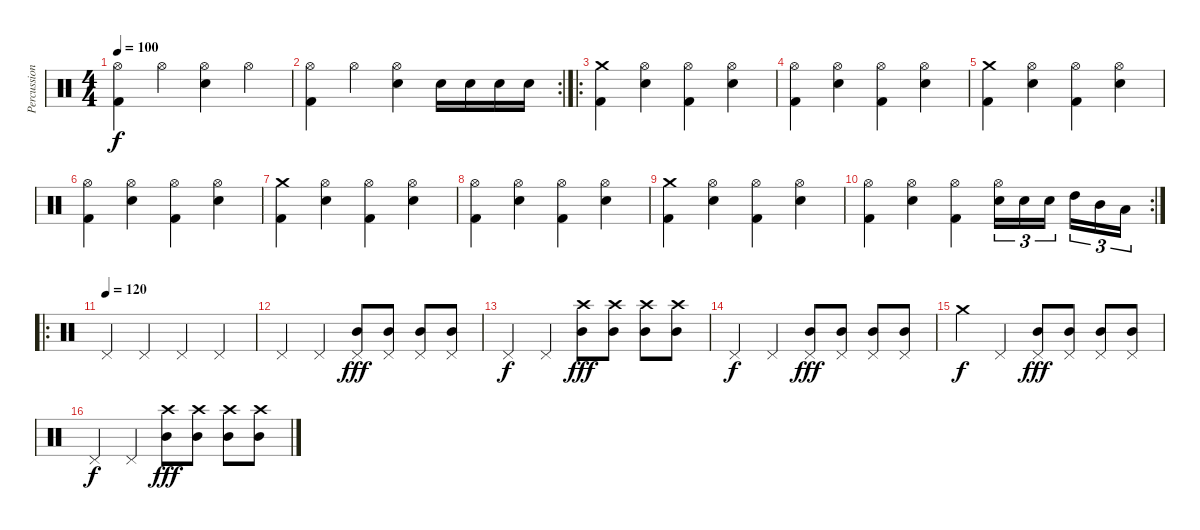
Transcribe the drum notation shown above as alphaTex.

\track ("Percussion" "Percussion") {instrument percussion}
\staff {score}
\articulation defaults
\ts (4 4)
\tempo 100
\clef neutral
\ks c
("Hi-Hat (open)" "Kick (hit) 2").4{dy f} "Hi-Hat (open)".4 ("Hi-Hat (open)" "Electric Snare (hit)").4 "Hi-Hat (open)".4 |
\rc 2
("Hi-Hat (open)" "Kick (hit) 2").4 "Hi-Hat (open)".4 ("Hi-Hat (open)" "Electric Snare (hit)").4 "Electric Snare (hit)".16 "Electric Snare (hit)".16 "Electric Snare (hit)".16 "Electric Snare (hit)".16 |
\ro
("Crash medium (hit)" "Kick (hit) 2").4 ("Hi-Hat (open)" "Electric Snare (hit)").4 ("Hi-Hat (open)" "Kick (hit) 2").4 ("Hi-Hat (open)" "Electric Snare (hit)").4 |
("Hi-Hat (open)" "Kick (hit) 2").4 ("Hi-Hat (open)" "Electric Snare (hit)").4 ("Hi-Hat (open)" "Kick (hit) 2").4 ("Hi-Hat (open)" "Electric Snare (hit)").4 |
("Crash medium (hit)" "Kick (hit) 2").4 ("Hi-Hat (open)" "Electric Snare (hit)").4 ("Hi-Hat (open)" "Kick (hit) 2").4 ("Hi-Hat (open)" "Electric Snare (hit)").4 |
("Hi-Hat (open)" "Kick (hit) 2").4 ("Hi-Hat (open)" "Electric Snare (hit)").4 ("Hi-Hat (open)" "Kick (hit) 2").4 ("Hi-Hat (open)" "Electric Snare (hit)").4 |
("Crash medium (hit)" "Kick (hit) 2").4 ("Hi-Hat (open)" "Electric Snare (hit)").4 ("Hi-Hat (open)" "Kick (hit) 2").4 ("Hi-Hat (open)" "Electric Snare (hit)").4 |
("Hi-Hat (open)" "Kick (hit) 2").4 ("Hi-Hat (open)" "Electric Snare (hit)").4 ("Hi-Hat (open)" "Kick (hit) 2").4 ("Hi-Hat (open)" "Electric Snare (hit)").4 |
("Crash medium (hit)" "Kick (hit) 2").4 ("Hi-Hat (open)" "Electric Snare (hit)").4 ("Hi-Hat (open)" "Kick (hit) 2").4 ("Hi-Hat (open)" "Electric Snare (hit)").4 |
\rc 2
("Hi-Hat (open)" "Kick (hit) 2").4 ("Hi-Hat (open)" "Electric Snare (hit)").4 ("Hi-Hat (open)" "Kick (hit) 2").4 ("Hi-Hat (open)" "Electric Snare (hit)").16{tu (3 2)} "Electric Snare (hit)".16{tu (3 2)} "Electric Snare (hit)".16{tu (3 2)} "High Tom (hit)".16{tu (3 2)} "Mid Tom (hit)".16{tu (3 2)} "Low Tom (hit)".16{tu (3 2)} |
\ro
\tempo (120)
"Pedal Hi-Hat (hit)".4 "Pedal Hi-Hat (hit)".4 "Pedal Hi-Hat (hit)".4 "Pedal Hi-Hat (hit)".4 |
"Pedal Hi-Hat (hit)".4 "Pedal Hi-Hat (hit)".4 ("Pedal Hi-Hat (hit)" "Mid Tom (hit)").8{dy fff} ("Pedal Hi-Hat (hit)" "Mid Tom (hit)").8 ("Pedal Hi-Hat (hit)" "Mid Tom (hit)").8 ("Pedal Hi-Hat (hit)" "Mid Tom (hit)").8 |
"Pedal Hi-Hat (hit)".4{dy f} "Pedal Hi-Hat (hit)".4 ("Crash high (hit)" "Mid Tom (hit)").8{dy fff} ("Crash high (hit)" "Mid Tom (hit)").8 ("Crash high (hit)" "Mid Tom (hit)").8 ("Crash high (hit)" "Mid Tom (hit)").8 |
"Pedal Hi-Hat (hit)".4{dy f} "Pedal Hi-Hat (hit)".4 ("Pedal Hi-Hat (hit)" "Mid Tom (hit)").8{dy fff} ("Pedal Hi-Hat (hit)" "Mid Tom (hit)").8 ("Pedal Hi-Hat (hit)" "Mid Tom (hit)").8 ("Pedal Hi-Hat (hit)" "Mid Tom (hit)").8 |
"Crash medium (hit)".4{dy f} "Pedal Hi-Hat (hit)".4 ("Pedal Hi-Hat (hit)" "Mid Tom (hit)").8{dy fff} ("Pedal Hi-Hat (hit)" "Mid Tom (hit)").8 ("Pedal Hi-Hat (hit)" "Mid Tom (hit)").8 ("Pedal Hi-Hat (hit)" "Mid Tom (hit)").8 |
"Pedal Hi-Hat (hit)".4{dy f} "Pedal Hi-Hat (hit)".4 ("Crash high (hit)" "Mid Tom (hit)").8{dy fff} ("Crash high (hit)" "Mid Tom (hit)").8 ("Crash high (hit)" "Mid Tom (hit)").8 ("Crash high (hit)" "Mid Tom (hit)").8
